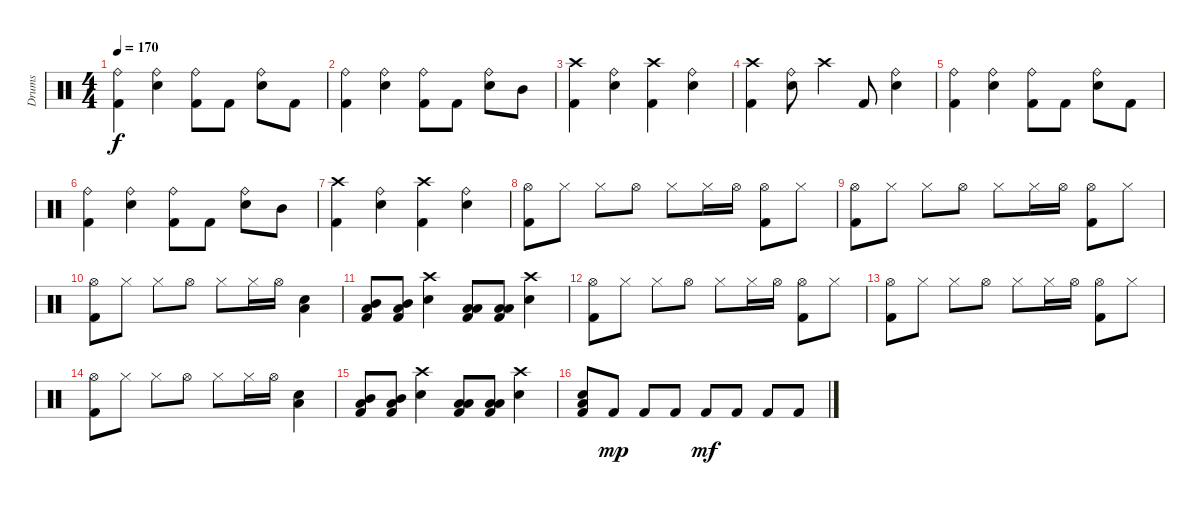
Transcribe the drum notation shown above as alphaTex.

\track ("Drums" "Drums") {instrument percussion}
\staff {score}
\articulation defaults
\ts (4 4)
\tempo 170
\clef neutral
\ks c
("Ride (bell)" "Kick (hit) 2").4{dy f} ("Ride (bell)" "Snare (hit) 2").4 ("Ride (bell)" "Kick (hit) 2").8 "Kick (hit) 2".8 ("Ride (bell)" "Snare (hit) 2").8 "Kick (hit) 2".8 |
("Ride (bell)" "Kick (hit) 2").4 ("Ride (bell)" "Snare (hit) 2").4 ("Ride (bell)" "Kick (hit) 2").8 "Kick (hit) 2".8 ("Ride (bell)" "Snare (hit) 2").8 "Mid Tom (hit)".8 |
("Crash high (hit)" "Kick (hit) 2").4 ("Ride (bell)" "Snare (hit) 2").4 ("Crash high (hit)" "Kick (hit) 2").4 ("Ride (bell)" "Snare (hit) 2").4 |
("Crash high (hit)" "Kick (hit) 2").4 ("Ride (bell)" "Snare (hit) 2").8 "Crash high (hit)".4 "Kick (hit) 2".8 ("Ride (bell)" "Snare (hit) 2").4 |
("Ride (bell)" "Kick (hit) 2").4 ("Ride (bell)" "Snare (hit) 2").4 ("Ride (bell)" "Kick (hit) 2").8 "Kick (hit) 2".8 ("Ride (bell)" "Snare (hit) 2").8 "Kick (hit) 2".8 |
("Ride (bell)" "Kick (hit) 2").4 ("Ride (bell)" "Snare (hit) 2").4 ("Ride (bell)" "Kick (hit) 2").8 "Kick (hit) 2".8 ("Ride (bell)" "Snare (hit) 2").8 "Mid Tom (hit)".8 |
("Crash high (hit)" "Kick (hit) 2").4 ("Ride (bell)" "Snare (hit) 2").4 ("Crash high (hit)" "Kick (hit) 2").4 ("Ride (bell)" "Snare (hit) 2").4 |
("Hi-Hat (open)" "Kick (hit) 2").8 "Hi-Hat (closed)".8 "Hi-Hat (closed)".8 "Hi-Hat (open)".8 "Hi-Hat (closed)".8 "Hi-Hat (closed)".16 "Hi-Hat (open)".16 ("Hi-Hat (open)" "Kick (hit) 2").8 "Hi-Hat (closed)".8 |
("Hi-Hat (open)" "Kick (hit) 2").8 "Hi-Hat (closed)".8 "Hi-Hat (closed)".8 "Hi-Hat (open)".8 "Hi-Hat (closed)".8 "Hi-Hat (closed)".16 "Hi-Hat (open)".16 ("Hi-Hat (open)" "Kick (hit) 2").8 "Hi-Hat (closed)".8 |
("Hi-Hat (open)" "Kick (hit) 2").8 "Hi-Hat (closed)".8 "Hi-Hat (closed)".8 "Hi-Hat (open)".8 "Hi-Hat (closed)".8 "Hi-Hat (closed)".16 "Hi-Hat (open)".16 ("Low Floor Tom (hit)" "Snare (hit) 2").4 |
("Low Floor Tom (hit)" "Mid Tom (hit)" "Kick (hit) 2").8 ("Low Floor Tom (hit)" "Mid Tom (hit)" "Kick (hit) 2").8 ("Crash high (hit)" "Snare (hit) 2").4 ("Low Floor Tom (hit)" "Low Tom (hit)" "Kick (hit) 2").8 ("Low Floor Tom (hit)" "Low Tom (hit)" "Kick (hit) 2").8 ("Crash high (hit)" "Snare (hit) 2").4 |
("Hi-Hat (open)" "Kick (hit) 2").8 "Hi-Hat (closed)".8 "Hi-Hat (closed)".8 "Hi-Hat (open)".8 "Hi-Hat (closed)".8 "Hi-Hat (closed)".16 "Hi-Hat (open)".16 ("Hi-Hat (open)" "Kick (hit) 2").8 "Hi-Hat (closed)".8 |
("Hi-Hat (open)" "Kick (hit) 2").8 "Hi-Hat (closed)".8 "Hi-Hat (closed)".8 "Hi-Hat (open)".8 "Hi-Hat (closed)".8 "Hi-Hat (closed)".16 "Hi-Hat (open)".16 ("Hi-Hat (open)" "Kick (hit) 2").8 "Hi-Hat (closed)".8 |
("Hi-Hat (open)" "Kick (hit) 2").8 "Hi-Hat (closed)".8 "Hi-Hat (closed)".8 "Hi-Hat (open)".8 "Hi-Hat (closed)".8 "Hi-Hat (closed)".16 "Hi-Hat (open)".16 ("Low Floor Tom (hit)" "Snare (hit) 2").4 |
("Low Floor Tom (hit)" "Mid Tom (hit)" "Kick (hit) 2").8 ("Low Floor Tom (hit)" "Mid Tom (hit)" "Kick (hit) 2").8 ("Crash high (hit)" "Snare (hit) 2").4 ("Low Floor Tom (hit)" "Low Tom (hit)" "Kick (hit) 2").8 ("Low Floor Tom (hit)" "Low Tom (hit)" "Kick (hit) 2").8 ("Crash high (hit)" "Snare (hit) 2").4 |
("Low Floor Tom (hit)" "Snare (hit) 2" "Kick (hit) 2").8 "Kick (hit) 2".8{dy mp} "Kick (hit) 2".8 "Kick (hit) 2".8 "Kick (hit) 2".8{dy mf} "Kick (hit) 2".8 "Kick (hit) 2".8 "Kick (hit) 2".8
